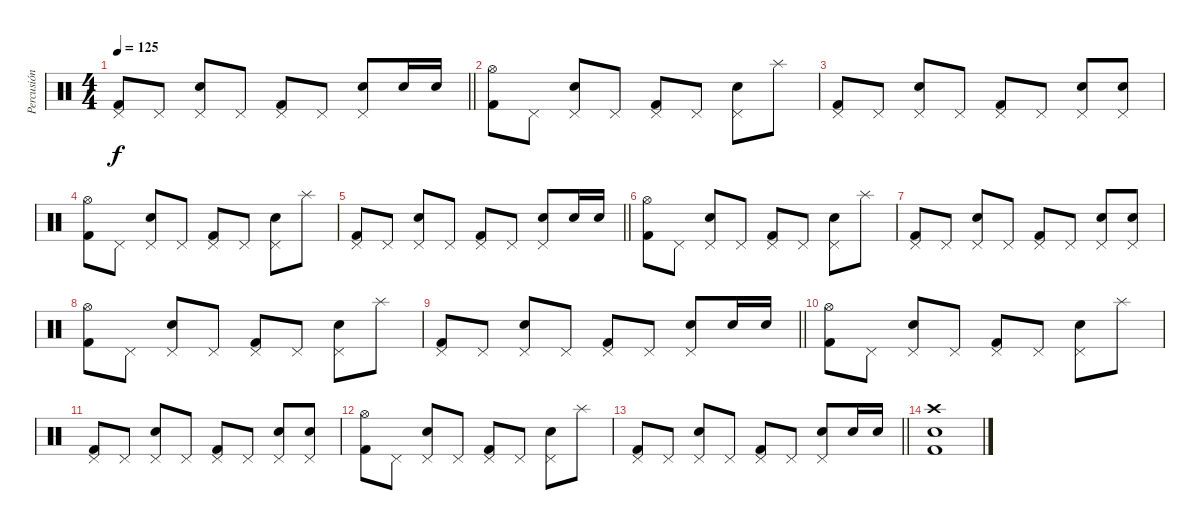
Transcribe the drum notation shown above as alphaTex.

\track ("Percusión" "Percusión") {instrument percussion}
\staff {score}
\articulation defaults
\ts (4 4)
\tempo 125
\clef neutral
\barLineRight lightlight
\ks c
("Pedal Hi-Hat (hit)" "Kick (hit) 2").8{dy f} "Pedal Hi-Hat (hit)".8 ("Pedal Hi-Hat (hit)" "Snare (hit) 2").8 "Pedal Hi-Hat (hit)".8 ("Pedal Hi-Hat (hit)" "Kick (hit) 2").8 "Pedal Hi-Hat (hit)".8 ("Pedal Hi-Hat (hit)" "Snare (hit) 2").8 "Snare (hit) 2".16 "Snare (hit) 2".16 |
("Hi-Hat (open)" "Kick (hit) 2").8 "Pedal Hi-Hat (hit)".8 ("Pedal Hi-Hat (hit)" "Snare (hit) 2").8 "Pedal Hi-Hat (hit)".8 ("Pedal Hi-Hat (hit)" "Kick (hit) 2").8 "Pedal Hi-Hat (hit)".8 ("Pedal Hi-Hat (hit)" "Snare (hit) 2").8 "Splash (hit)".8 |
("Pedal Hi-Hat (hit)" "Kick (hit) 2").8 "Pedal Hi-Hat (hit)".8 ("Pedal Hi-Hat (hit)" "Snare (hit) 2").8 "Pedal Hi-Hat (hit)".8 ("Pedal Hi-Hat (hit)" "Kick (hit) 2").8 "Pedal Hi-Hat (hit)".8 ("Pedal Hi-Hat (hit)" "Snare (hit) 2").8 ("Pedal Hi-Hat (hit)" "Snare (hit) 2").8 |
("Hi-Hat (open)" "Kick (hit) 2").8 "Pedal Hi-Hat (hit)".8 ("Pedal Hi-Hat (hit)" "Snare (hit) 2").8 "Pedal Hi-Hat (hit)".8 ("Pedal Hi-Hat (hit)" "Kick (hit) 2").8 "Pedal Hi-Hat (hit)".8 ("Pedal Hi-Hat (hit)" "Snare (hit) 2").8 "Splash (hit)".8 |
\barLineRight lightlight
("Pedal Hi-Hat (hit)" "Kick (hit) 2").8 "Pedal Hi-Hat (hit)".8 ("Pedal Hi-Hat (hit)" "Snare (hit) 2").8 "Pedal Hi-Hat (hit)".8 ("Pedal Hi-Hat (hit)" "Kick (hit) 2").8 "Pedal Hi-Hat (hit)".8 ("Pedal Hi-Hat (hit)" "Snare (hit) 2").8 "Snare (hit) 2".16 "Snare (hit) 2".16 |
("Hi-Hat (open)" "Kick (hit) 2").8 "Pedal Hi-Hat (hit)".8 ("Pedal Hi-Hat (hit)" "Snare (hit) 2").8 "Pedal Hi-Hat (hit)".8 ("Pedal Hi-Hat (hit)" "Kick (hit) 2").8 "Pedal Hi-Hat (hit)".8 ("Pedal Hi-Hat (hit)" "Snare (hit) 2").8 "Splash (hit)".8 |
("Pedal Hi-Hat (hit)" "Kick (hit) 2").8 "Pedal Hi-Hat (hit)".8 ("Pedal Hi-Hat (hit)" "Snare (hit) 2").8 "Pedal Hi-Hat (hit)".8 ("Pedal Hi-Hat (hit)" "Kick (hit) 2").8 "Pedal Hi-Hat (hit)".8 ("Pedal Hi-Hat (hit)" "Snare (hit) 2").8 ("Pedal Hi-Hat (hit)" "Snare (hit) 2").8 |
("Hi-Hat (open)" "Kick (hit) 2").8 "Pedal Hi-Hat (hit)".8 ("Pedal Hi-Hat (hit)" "Snare (hit) 2").8 "Pedal Hi-Hat (hit)".8 ("Pedal Hi-Hat (hit)" "Kick (hit) 2").8 "Pedal Hi-Hat (hit)".8 ("Pedal Hi-Hat (hit)" "Snare (hit) 2").8 "Splash (hit)".8 |
\barLineRight lightlight
("Pedal Hi-Hat (hit)" "Kick (hit) 2").8 "Pedal Hi-Hat (hit)".8 ("Pedal Hi-Hat (hit)" "Snare (hit) 2").8 "Pedal Hi-Hat (hit)".8 ("Pedal Hi-Hat (hit)" "Kick (hit) 2").8 "Pedal Hi-Hat (hit)".8 ("Pedal Hi-Hat (hit)" "Snare (hit) 2").8 "Snare (hit) 2".16 "Snare (hit) 2".16 |
("Hi-Hat (open)" "Kick (hit) 2").8 "Pedal Hi-Hat (hit)".8 ("Pedal Hi-Hat (hit)" "Snare (hit) 2").8 "Pedal Hi-Hat (hit)".8 ("Pedal Hi-Hat (hit)" "Kick (hit) 2").8 "Pedal Hi-Hat (hit)".8 ("Pedal Hi-Hat (hit)" "Snare (hit) 2").8 "Splash (hit)".8 |
("Pedal Hi-Hat (hit)" "Kick (hit) 2").8 "Pedal Hi-Hat (hit)".8 ("Pedal Hi-Hat (hit)" "Snare (hit) 2").8 "Pedal Hi-Hat (hit)".8 ("Pedal Hi-Hat (hit)" "Kick (hit) 2").8 "Pedal Hi-Hat (hit)".8 ("Pedal Hi-Hat (hit)" "Snare (hit) 2").8 ("Pedal Hi-Hat (hit)" "Snare (hit) 2").8 |
("Hi-Hat (open)" "Kick (hit) 2").8 "Pedal Hi-Hat (hit)".8 ("Pedal Hi-Hat (hit)" "Snare (hit) 2").8 "Pedal Hi-Hat (hit)".8 ("Pedal Hi-Hat (hit)" "Kick (hit) 2").8 "Pedal Hi-Hat (hit)".8 ("Pedal Hi-Hat (hit)" "Snare (hit) 2").8 "Splash (hit)".8 |
\barLineRight lightlight
("Pedal Hi-Hat (hit)" "Kick (hit) 2").8 "Pedal Hi-Hat (hit)".8 ("Pedal Hi-Hat (hit)" "Snare (hit) 2").8 "Pedal Hi-Hat (hit)".8 ("Pedal Hi-Hat (hit)" "Kick (hit) 2").8 "Pedal Hi-Hat (hit)".8 ("Pedal Hi-Hat (hit)" "Snare (hit) 2").8 "Snare (hit) 2".16 "Snare (hit) 2".16 |
("Crash high (hit)" "Snare (hit) 2" "Kick (hit) 2").1
